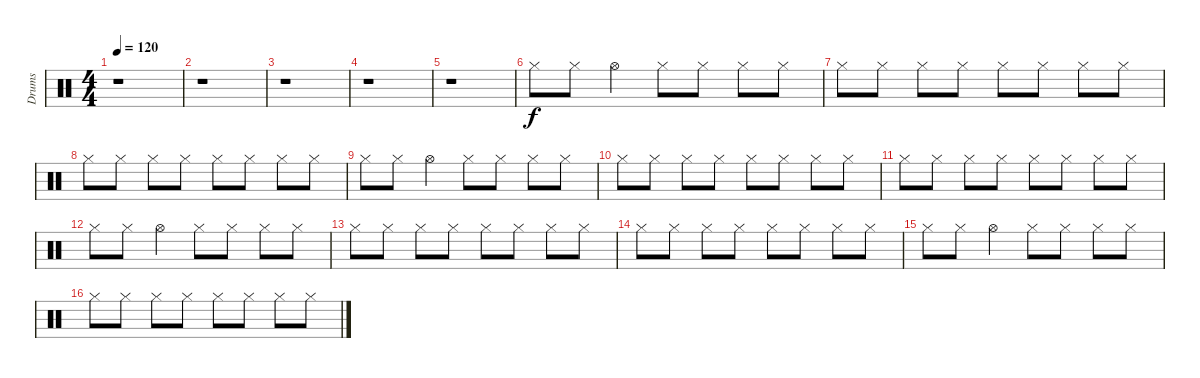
\track ("Drums" "Drums") {instrument percussion}
\staff {score}
\articulation defaults
\ts (4 4)
\tempo 120
\clef neutral
\ks c
r.1{dy f} |
r.1 |
r.1 |
r.1 |
r.1 |
"Hi-Hat (closed)".8 "Hi-Hat (closed)".8 "Hi-Hat (open)".4 "Hi-Hat (closed)".8 "Hi-Hat (closed)".8 "Hi-Hat (closed)".8 "Hi-Hat (closed)".8 |
"Hi-Hat (closed)".8 "Hi-Hat (closed)".8 "Hi-Hat (closed)".8 "Hi-Hat (closed)".8 "Hi-Hat (closed)".8 "Hi-Hat (closed)".8 "Hi-Hat (closed)".8 "Hi-Hat (closed)".8 |
"Hi-Hat (closed)".8 "Hi-Hat (closed)".8 "Hi-Hat (closed)".8 "Hi-Hat (closed)".8 "Hi-Hat (closed)".8 "Hi-Hat (closed)".8 "Hi-Hat (closed)".8 "Hi-Hat (closed)".8 |
"Hi-Hat (closed)".8 "Hi-Hat (closed)".8 "Hi-Hat (open)".4 "Hi-Hat (closed)".8 "Hi-Hat (closed)".8 "Hi-Hat (closed)".8 "Hi-Hat (closed)".8 |
"Hi-Hat (closed)".8 "Hi-Hat (closed)".8 "Hi-Hat (closed)".8 "Hi-Hat (closed)".8 "Hi-Hat (closed)".8 "Hi-Hat (closed)".8 "Hi-Hat (closed)".8 "Hi-Hat (closed)".8 |
"Hi-Hat (closed)".8 "Hi-Hat (closed)".8 "Hi-Hat (closed)".8 "Hi-Hat (closed)".8 "Hi-Hat (closed)".8 "Hi-Hat (closed)".8 "Hi-Hat (closed)".8 "Hi-Hat (closed)".8 |
"Hi-Hat (closed)".8 "Hi-Hat (closed)".8 "Hi-Hat (open)".4 "Hi-Hat (closed)".8 "Hi-Hat (closed)".8 "Hi-Hat (closed)".8 "Hi-Hat (closed)".8 |
"Hi-Hat (closed)".8 "Hi-Hat (closed)".8 "Hi-Hat (closed)".8 "Hi-Hat (closed)".8 "Hi-Hat (closed)".8 "Hi-Hat (closed)".8 "Hi-Hat (closed)".8 "Hi-Hat (closed)".8 |
"Hi-Hat (closed)".8 "Hi-Hat (closed)".8 "Hi-Hat (closed)".8 "Hi-Hat (closed)".8 "Hi-Hat (closed)".8 "Hi-Hat (closed)".8 "Hi-Hat (closed)".8 "Hi-Hat (closed)".8 |
"Hi-Hat (closed)".8 "Hi-Hat (closed)".8 "Hi-Hat (open)".4 "Hi-Hat (closed)".8 "Hi-Hat (closed)".8 "Hi-Hat (closed)".8 "Hi-Hat (closed)".8 |
"Hi-Hat (closed)".8 "Hi-Hat (closed)".8 "Hi-Hat (closed)".8 "Hi-Hat (closed)".8 "Hi-Hat (closed)".8 "Hi-Hat (closed)".8 "Hi-Hat (closed)".8 "Hi-Hat (closed)".8
